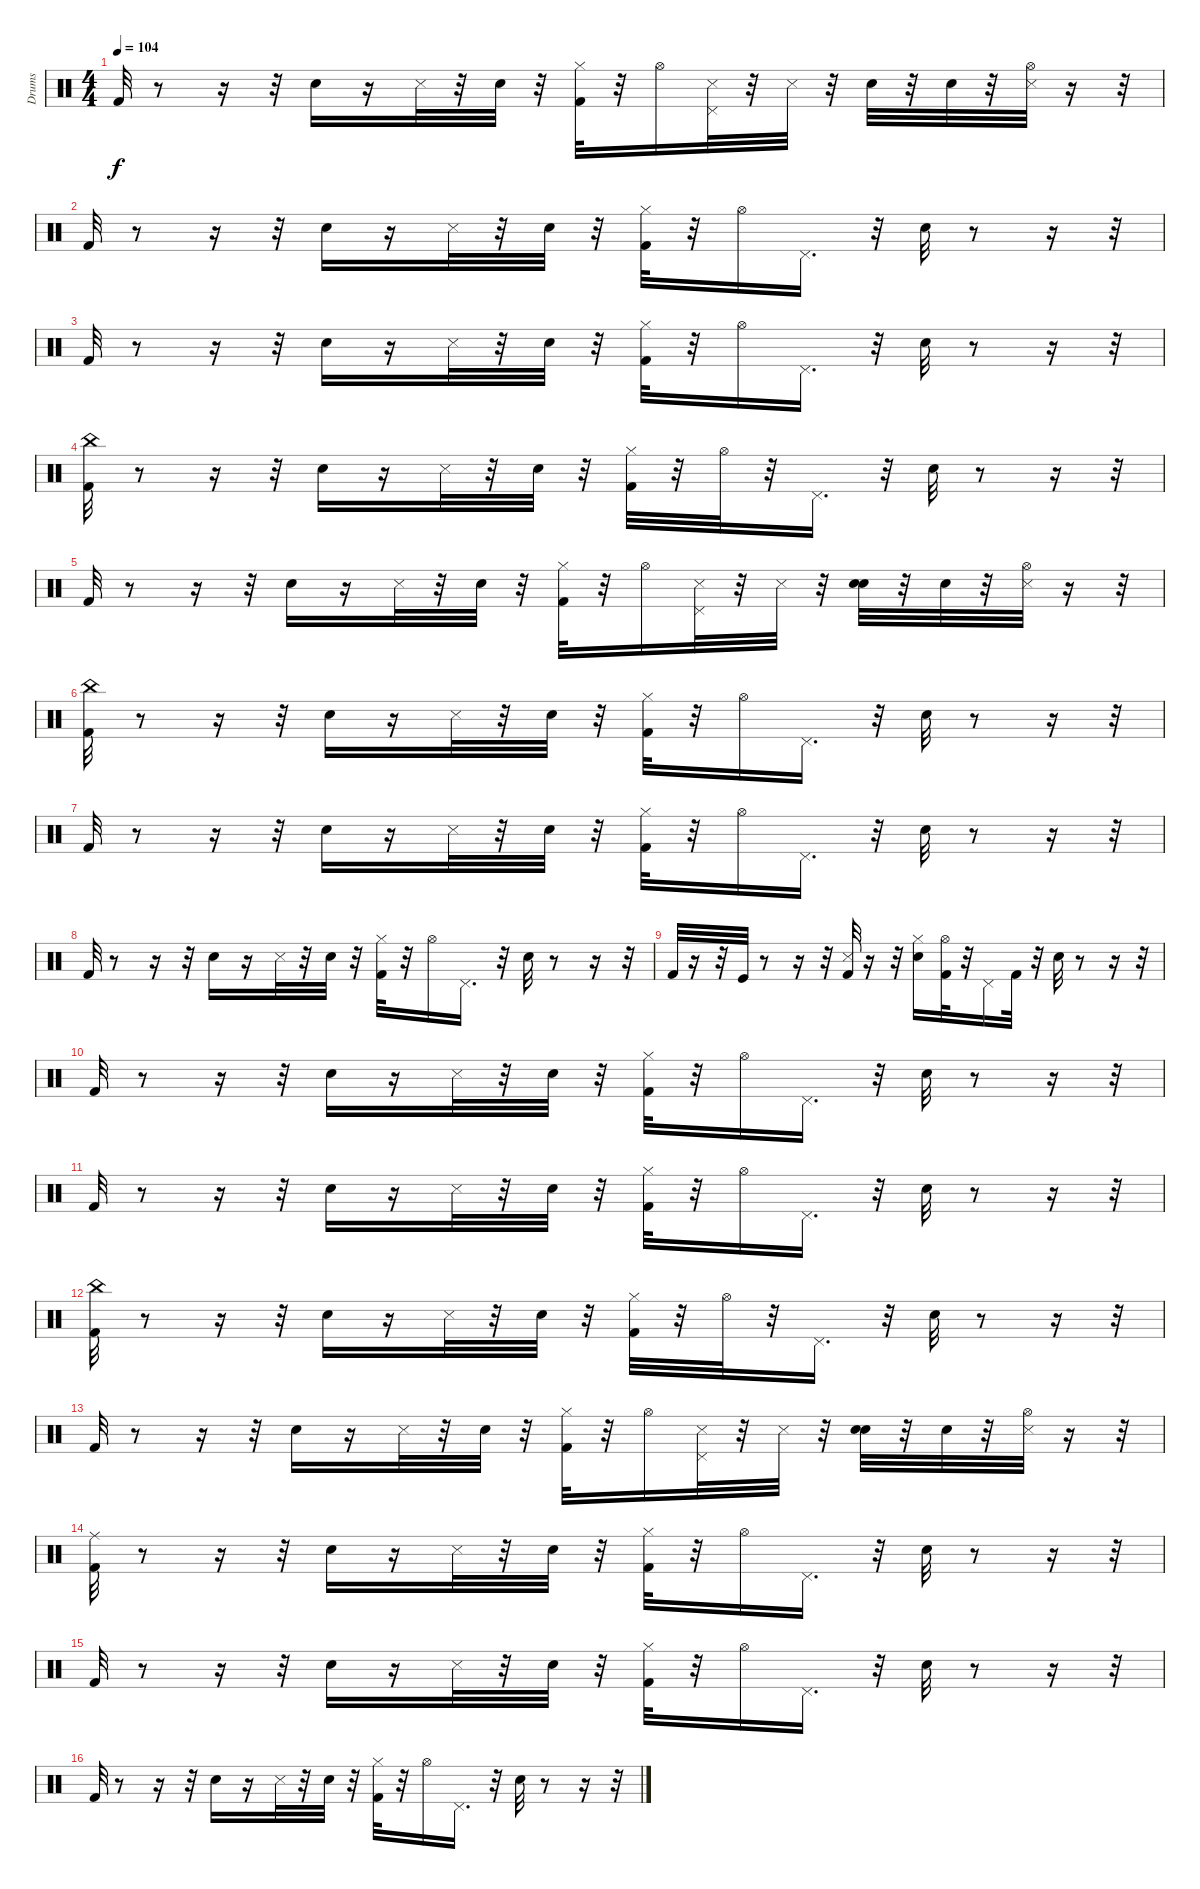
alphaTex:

\track ("Drums" "Drums") {instrument percussion}
\staff {score}
\articulation defaults
\ts (4 4)
\tempo 104
\clef neutral
\ks c "Kick (hit) 2".32{dy f}
r.8 r.16 r.32 "Snare (hit) 2".16 r.16 "Snare (side stick) 3".32 r.32 "Electric Snare (hit)".32 r.32 ("Kick (hit) 2" "Hi-Hat (closed)").32 r.32 "Hi-Hat (open)".16 ("Snare (side stick) 3" "Pedal Hi-Hat (hit)").32 r.32 "Snare (side stick) 3".32 r.32 "Snare (hit) 2".32 r.32 "Electric Snare (hit)".32 r.32 ("Snare (side stick) 3" "Hi-Hat (open)").32 r.16 r.32 |
"Kick (hit) 2".32 r.8 r.16 r.32 "Snare (hit) 2".16 r.16 "Snare (side stick) 3".32 r.32 "Electric Snare (hit)".32 r.32 ("Kick (hit) 2" "Hi-Hat (closed)").32 r.32 "Hi-Hat (open)".16 "Pedal Hi-Hat (hit)".16{d} r.32 "Snare (hit) 2".32 r.8 r.16 r.32 |
"Kick (hit) 2".32 r.8 r.16 r.32 "Snare (hit) 2".16 r.16 "Snare (side stick) 3".32 r.32 "Electric Snare (hit)".32 r.32 ("Kick (hit) 2" "Hi-Hat (closed)").32 r.32 "Hi-Hat (open)".16 "Pedal Hi-Hat (hit)".16{d} r.32 "Snare (hit) 2".32 r.8 r.16 r.32 |
("Kick (hit) 2" "China (hit)").32 r.8 r.16 r.32 "Snare (hit) 2".16 r.16 "Snare (side stick) 3".32 r.32 "Electric Snare (hit)".32 r.32 ("Kick (hit) 2" "Hi-Hat (closed)").32 r.32 "Hi-Hat (open)".32 r.32 "Pedal Hi-Hat (hit)".16{d} r.32 "Snare (hit) 2".32 r.8 r.16 r.32 |
"Kick (hit) 2".32 r.8 r.16 r.32 "Snare (hit) 2".16 r.16 "Snare (side stick) 3".32 r.32 "Electric Snare (hit)".32 r.32 ("Kick (hit) 2" "Hi-Hat (closed)").32 r.32 "Hi-Hat (open)".16 ("Snare (side stick) 3" "Pedal Hi-Hat (hit)").32 r.32 "Snare (side stick) 3".32 r.32 ("Snare (hit) 2" "Electric Snare (hit)").32 r.32 "Electric Snare (hit)".32 r.32 ("Snare (side stick) 3" "Hi-Hat (open)").32 r.16 r.32 |
("Kick (hit) 2" "China (hit)").32 r.8 r.16 r.32 "Snare (hit) 2".16 r.16 "Snare (side stick) 3".32 r.32 "Electric Snare (hit)".32 r.32 ("Kick (hit) 2" "Hi-Hat (closed)").32 r.32 "Hi-Hat (open)".16 "Pedal Hi-Hat (hit)".16{d} r.32 "Snare (hit) 2".32 r.8 r.16 r.32 |
"Kick (hit) 2".32 r.8 r.16 r.32 "Snare (hit) 2".16 r.16 "Snare (side stick) 3".32 r.32 "Electric Snare (hit)".32 r.32 ("Kick (hit) 2" "Hi-Hat (closed)").32 r.32 "Hi-Hat (open)".16 "Pedal Hi-Hat (hit)".16{d} r.32 "Snare (hit) 2".32 r.8 r.16 r.32 |
"Kick (hit) 2".32 r.8 r.16 r.32 "Snare (hit) 2".16 r.16 "Snare (side stick) 3".32 r.32 "Electric Snare (hit)".32 r.32 ("Kick (hit) 2" "Hi-Hat (closed)").32 r.32 "Hi-Hat (open)".16 "Pedal Hi-Hat (hit)".16{d} r.32 "Snare (hit) 2".32 r.8 r.16 r.32 |
"Kick (hit) 2".32 r.16 r.32 "Kick (hit)".32 r.8 r.16 r.32 ("Kick (hit) 2" "Snare (side stick) 3").32 r.16 r.32 ("Snare (hit) 2" "Hi-Hat (closed)").16 ("Kick (hit) 2" "Hi-Hat (open)").32 r.32 "Pedal Hi-Hat (hit)".16 "Kick (hit) 2".32 r.32 "Snare (hit) 2".32 r.8 r.16 r.32 |
"Kick (hit) 2".32 r.8 r.16 r.32 "Snare (hit) 2".16 r.16 "Snare (side stick) 3".32 r.32 "Electric Snare (hit)".32 r.32 ("Kick (hit) 2" "Hi-Hat (closed)").32 r.32 "Hi-Hat (open)".16 "Pedal Hi-Hat (hit)".16{d} r.32 "Snare (hit) 2".32 r.8 r.16 r.32 |
"Kick (hit) 2".32 r.8 r.16 r.32 "Snare (hit) 2".16 r.16 "Snare (side stick) 3".32 r.32 "Electric Snare (hit)".32 r.32 ("Kick (hit) 2" "Hi-Hat (closed)").32 r.32 "Hi-Hat (open)".16 "Pedal Hi-Hat (hit)".16{d} r.32 "Snare (hit) 2".32 r.8 r.16 r.32 |
("Kick (hit) 2" "China (hit)").32 r.8 r.16 r.32 "Snare (hit) 2".16 r.16 "Snare (side stick) 3".32 r.32 "Electric Snare (hit)".32 r.32 ("Kick (hit) 2" "Hi-Hat (closed)").32 r.32 "Hi-Hat (open)".32 r.32 "Pedal Hi-Hat (hit)".16{d} r.32 "Snare (hit) 2".32 r.8 r.16 r.32 |
"Kick (hit) 2".32 r.8 r.16 r.32 "Snare (hit) 2".16 r.16 "Snare (side stick) 3".32 r.32 "Electric Snare (hit)".32 r.32 ("Kick (hit) 2" "Hi-Hat (closed)").32 r.32 "Hi-Hat (open)".16 ("Snare (side stick) 3" "Pedal Hi-Hat (hit)").32 r.32 "Snare (side stick) 3".32 r.32 ("Snare (hit) 2" "Electric Snare (hit)").32 r.32 "Electric Snare (hit)".32 r.32 ("Snare (side stick) 3" "Hi-Hat (open)").32 r.16 r.32 |
("Kick (hit) 2" "Ride (middle)").32 r.8 r.16 r.32 "Snare (hit) 2".16 r.16 "Snare (side stick) 3".32 r.32 "Electric Snare (hit)".32 r.32 ("Kick (hit) 2" "Hi-Hat (closed)").32 r.32 "Hi-Hat (open)".16 "Pedal Hi-Hat (hit)".16{d} r.32 "Snare (hit) 2".32 r.8 r.16 r.32 |
"Kick (hit) 2".32 r.8 r.16 r.32 "Snare (hit) 2".16 r.16 "Snare (side stick) 3".32 r.32 "Electric Snare (hit)".32 r.32 ("Kick (hit) 2" "Hi-Hat (closed)").32 r.32 "Hi-Hat (open)".16 "Pedal Hi-Hat (hit)".16{d} r.32 "Snare (hit) 2".32 r.8 r.16 r.32 |
"Kick (hit) 2".32 r.8 r.16 r.32 "Snare (hit) 2".16 r.16 "Snare (side stick) 3".32 r.32 "Electric Snare (hit)".32 r.32 ("Kick (hit) 2" "Hi-Hat (closed)").32 r.32 "Hi-Hat (open)".16 "Pedal Hi-Hat (hit)".16{d} r.32 "Snare (hit) 2".32 r.8 r.16 r.32
